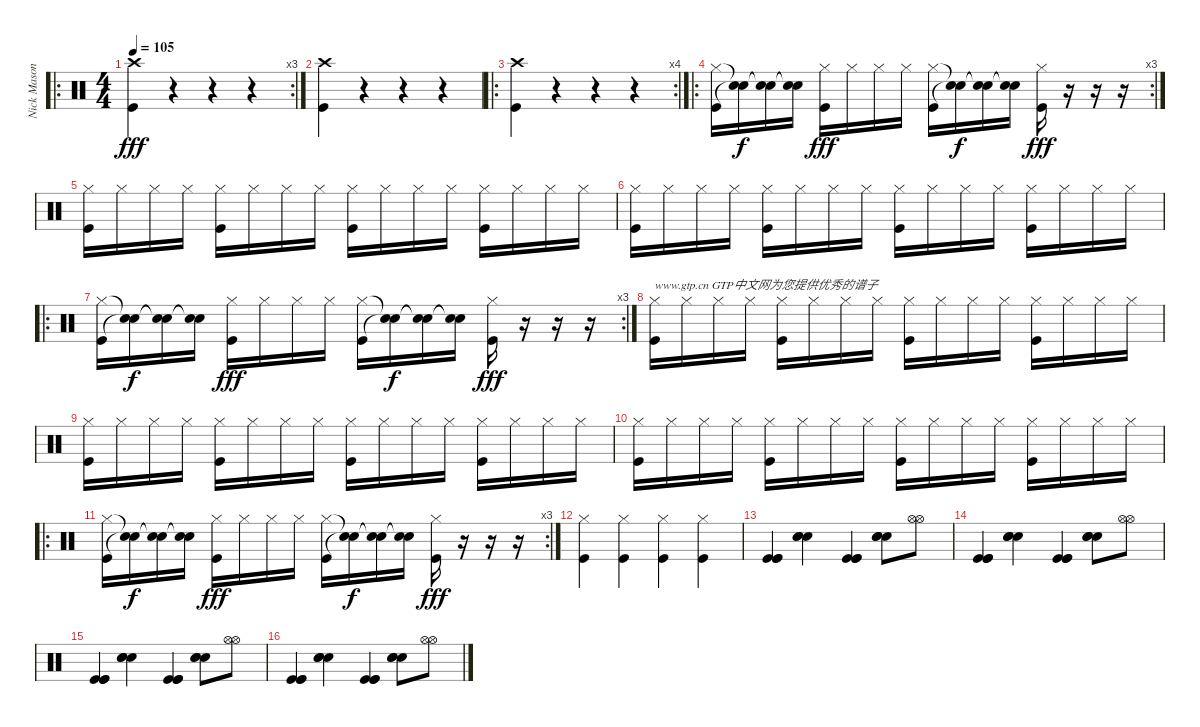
\track ("Nick Mason" "Nick Mason") {instrument percussion}
\staff {score}
\articulation defaults
\ro
\rc 3
\ts (4 4)
\tempo 105
\clef neutral
\ks c
("Crash high (hit)" "Kick (hit)").4{dy fff} r.4 r.4 r.4 |
("Crash high (hit)" "Kick (hit)").4 r.4 r.4 r.4 |
\ro
\rc 4
("Crash high (hit)" "Kick (hit)").4 r.4 r.4 r.4 |
\ro
\rc 3
("Hi-Hat (closed)" "Kick (hit)").16 ("Snare (hit)"{t} "Snare (hit)"{t}).16{dy f} ("Snare (hit)"{t} "Snare (hit)"{t}).16 ("Snare (hit)"{t} "Snare (hit)"{t}).16 ("Hi-Hat (closed)" "Kick (hit)").16{dy fff} "Hi-Hat (closed)".16 "Hi-Hat (closed)".16 "Hi-Hat (closed)".16 ("Hi-Hat (closed)" "Kick (hit)").16 ("Snare (hit)"{t} "Snare (hit)"{t}).16{dy f} ("Snare (hit)"{t} "Snare (hit)"{t}).16 ("Snare (hit)"{t} "Snare (hit)"{t}).16 ("Hi-Hat (closed)" "Kick (hit)").16{dy fff} r.16 r.16 r.16 |
("Hi-Hat (closed)" "Kick (hit)").16 "Hi-Hat (closed)".16 "Hi-Hat (closed)".16 "Hi-Hat (closed)".16 ("Hi-Hat (closed)" "Kick (hit)").16 "Hi-Hat (closed)".16 "Hi-Hat (closed)".16 "Hi-Hat (closed)".16 ("Hi-Hat (closed)" "Kick (hit)").16 "Hi-Hat (closed)".16 "Hi-Hat (closed)".16 "Hi-Hat (closed)".16 ("Hi-Hat (closed)" "Kick (hit)").16 "Hi-Hat (closed)".16 "Hi-Hat (closed)".16 "Hi-Hat (closed)".16 |
("Hi-Hat (closed)" "Kick (hit)").16 "Hi-Hat (closed)".16 "Hi-Hat (closed)".16 "Hi-Hat (closed)".16 ("Hi-Hat (closed)" "Kick (hit)").16 "Hi-Hat (closed)".16 "Hi-Hat (closed)".16 "Hi-Hat (closed)".16 ("Hi-Hat (closed)" "Kick (hit)").16 "Hi-Hat (closed)".16 "Hi-Hat (closed)".16 "Hi-Hat (closed)".16 ("Hi-Hat (closed)" "Kick (hit)").16 "Hi-Hat (closed)".16 "Hi-Hat (closed)".16 "Hi-Hat (closed)".16 |
\ro
\rc 3
("Hi-Hat (closed)" "Kick (hit)").16 ("Snare (hit)"{t} "Snare (hit)"{t}).16{dy f} ("Snare (hit)"{t} "Snare (hit)"{t}).16 ("Snare (hit)"{t} "Snare (hit)"{t}).16 ("Hi-Hat (closed)" "Kick (hit)").16{dy fff} "Hi-Hat (closed)".16 "Hi-Hat (closed)".16 "Hi-Hat (closed)".16 ("Hi-Hat (closed)" "Kick (hit)").16 ("Snare (hit)"{t} "Snare (hit)"{t}).16{dy f} ("Snare (hit)"{t} "Snare (hit)"{t}).16 ("Snare (hit)"{t} "Snare (hit)"{t}).16 ("Hi-Hat (closed)" "Kick (hit)").16{dy fff} r.16 r.16 r.16 |
("Hi-Hat (closed)" "Kick (hit)").16{txt "www.gtp.cn GTP中文网为您提供优秀的谱子"} "Hi-Hat (closed)".16 "Hi-Hat (closed)".16 "Hi-Hat (closed)".16 ("Hi-Hat (closed)" "Kick (hit)").16 "Hi-Hat (closed)".16 "Hi-Hat (closed)".16 "Hi-Hat (closed)".16 ("Hi-Hat (closed)" "Kick (hit)").16 "Hi-Hat (closed)".16 "Hi-Hat (closed)".16 "Hi-Hat (closed)".16 ("Hi-Hat (closed)" "Kick (hit)").16 "Hi-Hat (closed)".16 "Hi-Hat (closed)".16 "Hi-Hat (closed)".16 |
("Hi-Hat (closed)" "Kick (hit)").16 "Hi-Hat (closed)".16 "Hi-Hat (closed)".16 "Hi-Hat (closed)".16 ("Hi-Hat (closed)" "Kick (hit)").16 "Hi-Hat (closed)".16 "Hi-Hat (closed)".16 "Hi-Hat (closed)".16 ("Hi-Hat (closed)" "Kick (hit)").16 "Hi-Hat (closed)".16 "Hi-Hat (closed)".16 "Hi-Hat (closed)".16 ("Hi-Hat (closed)" "Kick (hit)").16 "Hi-Hat (closed)".16 "Hi-Hat (closed)".16 "Hi-Hat (closed)".16 |
("Hi-Hat (closed)" "Kick (hit)").16 "Hi-Hat (closed)".16 "Hi-Hat (closed)".16 "Hi-Hat (closed)".16 ("Hi-Hat (closed)" "Kick (hit)").16 "Hi-Hat (closed)".16 "Hi-Hat (closed)".16 "Hi-Hat (closed)".16 ("Hi-Hat (closed)" "Kick (hit)").16 "Hi-Hat (closed)".16 "Hi-Hat (closed)".16 "Hi-Hat (closed)".16 ("Hi-Hat (closed)" "Kick (hit)").16 "Hi-Hat (closed)".16 "Hi-Hat (closed)".16 "Hi-Hat (closed)".16 |
\ro
\rc 3
("Hi-Hat (closed)" "Kick (hit)").16 ("Snare (hit)"{t} "Snare (hit)"{t}).16{dy f} ("Snare (hit)"{t} "Snare (hit)"{t}).16 ("Snare (hit)"{t} "Snare (hit)"{t}).16 ("Hi-Hat (closed)" "Kick (hit)").16{dy fff} "Hi-Hat (closed)".16 "Hi-Hat (closed)".16 "Hi-Hat (closed)".16 ("Hi-Hat (closed)" "Kick (hit)").16 ("Snare (hit)"{t} "Snare (hit)"{t}).16{dy f} ("Snare (hit)"{t} "Snare (hit)"{t}).16 ("Snare (hit)"{t} "Snare (hit)"{t}).16 ("Hi-Hat (closed)" "Kick (hit)").16{dy fff} r.16 r.16 r.16 |
("Hi-Hat (closed)" "Kick (hit)").4 ("Hi-Hat (closed)" "Kick (hit)").4 ("Hi-Hat (closed)" "Kick (hit)").4 ("Hi-Hat (closed)" "Kick (hit)").4 |
("Kick (hit)" "Kick (hit)" "Kick (hit)").4 ("Snare (hit) 2" "Snare (hit) 2" "Snare (hit) 2").4 ("Kick (hit)" "Kick (hit)" "Kick (hit)").4 ("Snare (hit) 2" "Snare (hit) 2" "Snare (hit) 2").8 ("Hi-Hat (open)" "Hi-Hat (open)").8 |
("Kick (hit)" "Kick (hit)" "Kick (hit)").4 ("Snare (hit) 2" "Snare (hit) 2" "Snare (hit) 2").4 ("Kick (hit)" "Kick (hit)" "Kick (hit)").4 ("Snare (hit) 2" "Snare (hit) 2" "Snare (hit) 2").8 ("Hi-Hat (open)" "Hi-Hat (open)").8 |
("Kick (hit)" "Kick (hit)" "Kick (hit)").4 ("Snare (hit) 2" "Snare (hit) 2" "Snare (hit) 2").4 ("Kick (hit)" "Kick (hit)" "Kick (hit)").4 ("Snare (hit) 2" "Snare (hit) 2" "Snare (hit) 2").8 ("Hi-Hat (open)" "Hi-Hat (open)").8 |
("Kick (hit)" "Kick (hit)" "Kick (hit)").4 ("Snare (hit) 2" "Snare (hit) 2" "Snare (hit) 2").4 ("Kick (hit)" "Kick (hit)" "Kick (hit)").4 ("Snare (hit) 2" "Snare (hit) 2" "Snare (hit) 2").8 ("Hi-Hat (open)" "Hi-Hat (open)").8
